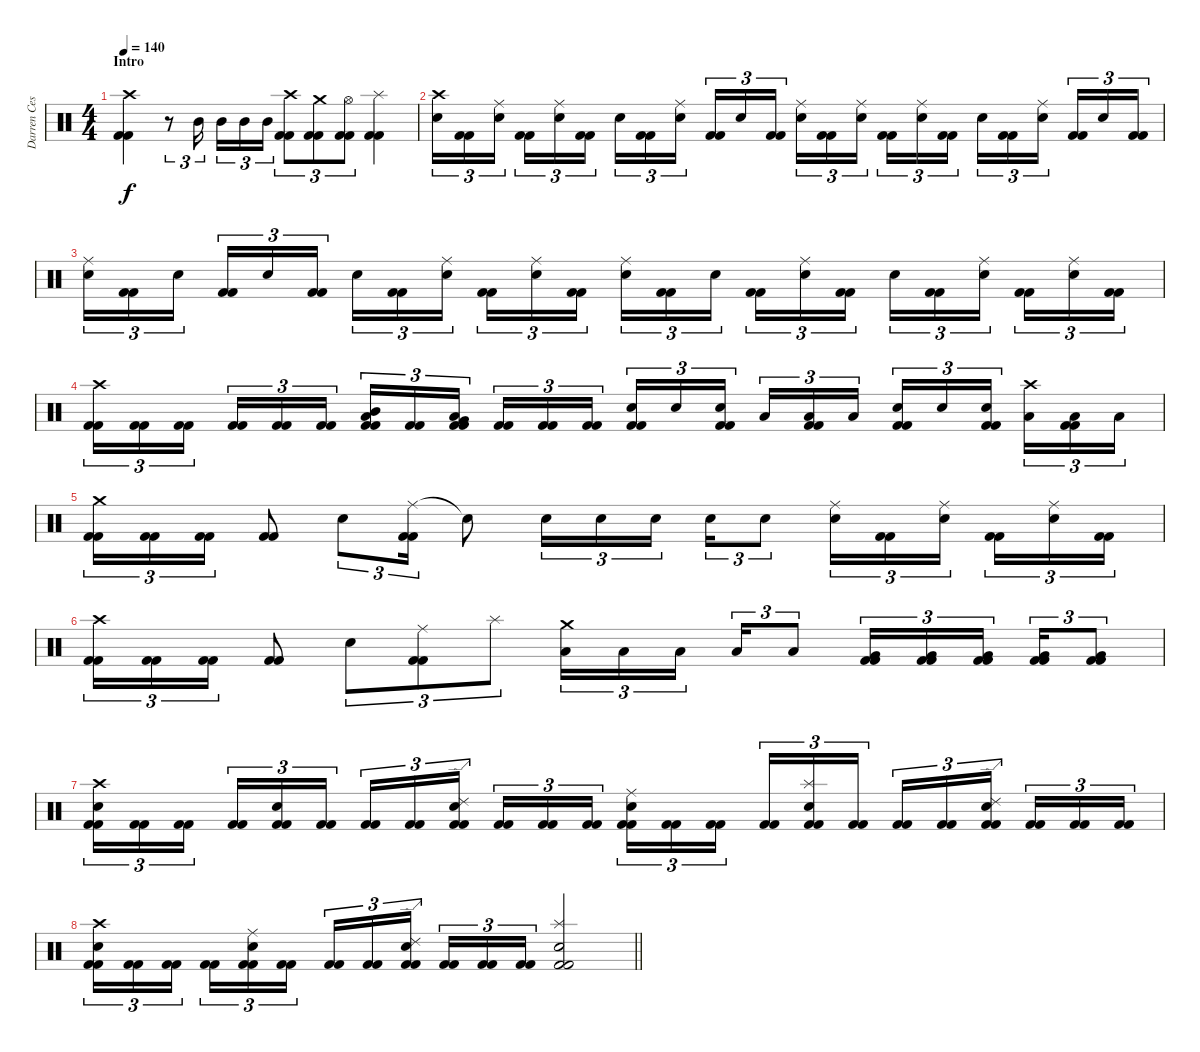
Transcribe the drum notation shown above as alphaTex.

\track ("Darren Cesca" "Darren Ces") {instrument percussion}
\staff {score}
\articulation defaults
\ts (4 4)
\section ("" "Intro")
\tempo 140
\clef neutral
\ks c
("Crash high (hit)" "Kick (hit) 2" "Kick (hit) 2").4{dy f} r.8{tu (3 2)} "Mid Tom (hit)".16{tu (3 2) beam splitsecondary} "Mid Tom (hit)".16{tu (3 2)} "Mid Tom (hit)".16{tu (3 2)} "Mid Tom (hit)".16{tu (3 2)} ("Crash high (hit)" "Kick (hit) 2" "Kick (hit) 2").8{tu (3 2)} ("Crash medium (hit)" "Kick (hit) 2" "Kick (hit) 2").8{tu (3 2)} ("Hi-Hat (open)" "Kick (hit) 2" "Kick (hit) 2").8{tu (3 2)} ("Splash (hit)" "Kick (hit) 2" "Kick (hit) 2").4 |
("Crash high (hit)" "Electric Snare (hit)").16{tu (3 2)} ("Kick (hit) 2" "Kick (hit) 2").16{tu (3 2)} ("Ride (middle)" "Electric Snare (hit)").16{tu (3 2) beam splitsecondary} ("Kick (hit) 2" "Kick (hit) 2").16{tu (3 2)} ("Ride (middle)" "Electric Snare (hit)").16{tu (3 2)} ("Kick (hit) 2" "Kick (hit) 2").16{tu (3 2)} "Electric Snare (hit)".16{tu (3 2)} ("Kick (hit) 2" "Kick (hit) 2").16{tu (3 2)} ("Ride (middle)" "Electric Snare (hit)").16{tu (3 2) beam splitsecondary} ("Kick (hit) 2" "Kick (hit) 2").16{tu (3 2)} "Electric Snare (hit)".16{tu (3 2)} ("Kick (hit) 2" "Kick (hit) 2").16{tu (3 2)} ("Ride (middle)" "Electric Snare (hit)").16{tu (3 2)} ("Kick (hit) 2" "Kick (hit) 2").16{tu (3 2)} ("Ride (middle)" "Electric Snare (hit)").16{tu (3 2) beam splitsecondary} ("Kick (hit) 2" "Kick (hit) 2").16{tu (3 2)} ("Ride (middle)" "Electric Snare (hit)").16{tu (3 2)} ("Kick (hit) 2" "Kick (hit) 2").16{tu (3 2)} "Electric Snare (hit)".16{tu (3 2)} ("Kick (hit) 2" "Kick (hit) 2").16{tu (3 2)} ("Ride (middle)" "Electric Snare (hit)").16{tu (3 2) beam splitsecondary} ("Kick (hit) 2" "Kick (hit) 2").16{tu (3 2)} "Electric Snare (hit)".16{tu (3 2)} ("Kick (hit) 2" "Kick (hit) 2").16{tu (3 2)} |
("Ride (middle)" "Electric Snare (hit)").16{tu (3 2)} ("Kick (hit) 2" "Kick (hit) 2").16{tu (3 2)} "Electric Snare (hit)".16{tu (3 2) beam splitsecondary} ("Kick (hit) 2" "Kick (hit) 2").16{tu (3 2)} "Electric Snare (hit)".16{tu (3 2)} ("Kick (hit) 2" "Kick (hit) 2").16{tu (3 2)} "Electric Snare (hit)".16{tu (3 2)} ("Kick (hit) 2" "Kick (hit) 2").16{tu (3 2)} ("Ride (middle)" "Electric Snare (hit)").16{tu (3 2) beam splitsecondary} ("Kick (hit) 2" "Kick (hit) 2").16{tu (3 2)} ("Ride (middle)" "Electric Snare (hit)").16{tu (3 2)} ("Kick (hit) 2" "Kick (hit) 2").16{tu (3 2)} ("Ride (middle)" "Electric Snare (hit)").16{tu (3 2)} ("Kick (hit) 2" "Kick (hit) 2").16{tu (3 2)} "Electric Snare (hit)".16{tu (3 2) beam splitsecondary} ("Kick (hit) 2" "Kick (hit) 2").16{tu (3 2)} ("Ride (middle)" "Electric Snare (hit)").16{tu (3 2)} ("Kick (hit) 2" "Kick (hit) 2").16{tu (3 2)} "Electric Snare (hit)".16{tu (3 2)} ("Kick (hit) 2" "Kick (hit) 2").16{tu (3 2)} ("Ride (middle)" "Electric Snare (hit)").16{tu (3 2) beam splitsecondary} ("Kick (hit) 2" "Kick (hit) 2").16{tu (3 2)} ("Ride (middle)" "Electric Snare (hit)").16{tu (3 2)} ("Kick (hit) 2" "Kick (hit) 2").16{tu (3 2)} |
("Crash high (hit)" "Kick (hit) 2" "Kick (hit) 2").16{tu (3 2)} ("Kick (hit) 2" "Kick (hit) 2").16{tu (3 2)} ("Kick (hit) 2" "Kick (hit) 2").16{tu (3 2) beam splitsecondary} ("Kick (hit) 2" "Kick (hit) 2").16{tu (3 2)} ("Kick (hit) 2" "Kick (hit) 2").16{tu (3 2)} ("Kick (hit) 2" "Kick (hit) 2").16{tu (3 2)} ("Mid Tom (hit)" "Low Tom (hit)" "Kick (hit) 2" "Kick (hit) 2").16{tu (3 2)} ("Kick (hit) 2" "Kick (hit) 2").16{tu (3 2)} ("Low Tom (hit)" "Very Low Tom (hit)" "Kick (hit) 2" "Kick (hit) 2").16{tu (3 2) beam splitsecondary} ("Kick (hit) 2" "Kick (hit) 2").16{tu (3 2)} ("Kick (hit) 2" "Kick (hit) 2").16{tu (3 2)} ("Kick (hit) 2" "Kick (hit) 2").16{tu (3 2)} ("Electric Snare (hit)" "Kick (hit) 2" "Kick (hit) 2").16{tu (3 2)} "Electric Snare (hit)".16{tu (3 2)} ("Electric Snare (hit)" "Kick (hit) 2" "Kick (hit) 2").16{tu (3 2) beam splitsecondary} "Low Tom (hit)".16{tu (3 2)} ("Low Tom (hit)" "Kick (hit) 2" "Kick (hit) 2").16{tu (3 2)} "Low Tom (hit)".16{tu (3 2)} ("Electric Snare (hit)" "Kick (hit) 2" "Kick (hit) 2").16{tu (3 2)} "Electric Snare (hit)".16{tu (3 2)} ("Electric Snare (hit)" "Kick (hit) 2" "Kick (hit) 2").16{tu (3 2) beam splitsecondary} ("Crash high (hit)" "Low Tom (hit)").16{tu (3 2)} ("Low Tom (hit)" "Kick (hit) 2" "Kick (hit) 2").16{tu (3 2)} "Low Tom (hit)".16{tu (3 2)} |
("Crash medium (hit)" "Kick (hit) 2" "Kick (hit) 2").16{tu (3 2)} ("Kick (hit) 2" "Kick (hit) 2").16{tu (3 2)} ("Kick (hit) 2" "Kick (hit) 2").16{tu (3 2)} ("Kick (hit) 2" "Kick (hit) 2").8 "Electric Snare (hit)".8{tu (3 2)} ("Ride (middle)" "Kick (hit) 2" "Kick (hit) 2").16{tu (3 2)} "Snare (hit)"{t}.8 "Electric Snare (hit)".16{tu (3 2)} "Electric Snare (hit)".16{tu (3 2)} "Electric Snare (hit)".16{tu (3 2) beam splitsecondary} "Electric Snare (hit)".16{tu (3 2)} "Electric Snare (hit)".8{tu (3 2)} ("Ride (middle)" "Electric Snare (hit)").16{tu (3 2)} ("Kick (hit) 2" "Kick (hit) 2").16{tu (3 2)} ("Ride (middle)" "Electric Snare (hit)").16{tu (3 2) beam splitsecondary} ("Kick (hit) 2" "Kick (hit) 2").16{tu (3 2)} ("Ride (middle)" "Electric Snare (hit)").16{tu (3 2)} ("Kick (hit) 2" "Kick (hit) 2").16{tu (3 2)} |
("Crash high (hit)" "Kick (hit) 2" "Kick (hit) 2").16{tu (3 2)} ("Kick (hit) 2" "Kick (hit) 2").16{tu (3 2)} ("Kick (hit) 2" "Kick (hit) 2").16{tu (3 2)} ("Kick (hit) 2" "Kick (hit) 2").8 "Electric Snare (hit)".8{tu (3 2)} ("Ride (middle)" "Kick (hit) 2" "Kick (hit) 2").8{tu (3 2)} "Splash (hit)".8{tu (3 2)} ("Crash medium (hit)" "Low Tom (hit)").16{tu (3 2)} "Low Tom (hit)".16{tu (3 2)} "Low Tom (hit)".16{tu (3 2) beam splitsecondary} "Low Tom (hit)".16{tu (3 2)} "Low Tom (hit)".8{tu (3 2)} ("Very Low Tom (hit)" "Kick (hit) 2" "Kick (hit) 2").16{tu (3 2)} ("Very Low Tom (hit)" "Kick (hit) 2" "Kick (hit) 2").16{tu (3 2)} ("Very Low Tom (hit)" "Kick (hit) 2" "Kick (hit) 2").16{tu (3 2) beam splitsecondary} ("Very Low Tom (hit)" "Kick (hit) 2" "Kick (hit) 2").16{tu (3 2)} ("Very Low Tom (hit)" "Kick (hit) 2" "Kick (hit) 2").8{tu (3 2)} |
("Crash high (hit)" "Electric Snare (hit)" "Kick (hit) 2" "Kick (hit) 2").16{tu (3 2)} ("Kick (hit) 2" "Kick (hit) 2").16{tu (3 2)} ("Kick (hit) 2" "Kick (hit) 2").16{tu (3 2) beam splitsecondary} ("Kick (hit) 2" "Kick (hit) 2").16{tu (3 2)} ("Electric Snare (hit)" "Kick (hit) 2" "Kick (hit) 2").16{tu (3 2)} ("Kick (hit) 2" "Kick (hit) 2").16{tu (3 2)} ("Kick (hit) 2" "Kick (hit) 2").16{tu (3 2)} ("Kick (hit) 2" "Kick (hit) 2").16{tu (3 2)} ("Ride (edge) 2" "Electric Snare (hit)" "Kick (hit) 2" "Kick (hit) 2").16{tu (3 2) beam splitsecondary} ("Kick (hit) 2" "Kick (hit) 2").16{tu (3 2)} ("Kick (hit) 2" "Kick (hit) 2").16{tu (3 2)} ("Kick (hit) 2" "Kick (hit) 2").16{tu (3 2)} ("Ride (middle)" "Electric Snare (hit)" "Kick (hit) 2" "Kick (hit) 2").16{tu (3 2)} ("Kick (hit) 2" "Kick (hit) 2").16{tu (3 2)} ("Kick (hit) 2" "Kick (hit) 2").16{tu (3 2) beam splitsecondary} ("Kick (hit) 2" "Kick (hit) 2").16{tu (3 2)} ("Splash (hit)" "Electric Snare (hit)" "Kick (hit) 2" "Kick (hit) 2").16{tu (3 2)} ("Kick (hit) 2" "Kick (hit) 2").16{tu (3 2)} ("Kick (hit) 2" "Kick (hit) 2").16{tu (3 2)} ("Kick (hit) 2" "Kick (hit) 2").16{tu (3 2)} ("Ride (edge) 2" "Electric Snare (hit)" "Kick (hit) 2" "Kick (hit) 2").16{tu (3 2) beam splitsecondary} ("Kick (hit) 2" "Kick (hit) 2").16{tu (3 2)} ("Kick (hit) 2" "Kick (hit) 2").16{tu (3 2)} ("Kick (hit) 2" "Kick (hit) 2").16{tu (3 2)} |
\barLineRight lightlight
("Crash high (hit)" "Electric Snare (hit)" "Kick (hit) 2" "Kick (hit) 2").16{tu (3 2)} ("Kick (hit) 2" "Kick (hit) 2").16{tu (3 2)} ("Kick (hit) 2" "Kick (hit) 2").16{tu (3 2) beam splitsecondary} ("Kick (hit) 2" "Kick (hit) 2").16{tu (3 2)} ("Ride (middle)" "Electric Snare (hit)" "Kick (hit) 2" "Kick (hit) 2").16{tu (3 2)} ("Kick (hit) 2" "Kick (hit) 2").16{tu (3 2)} ("Kick (hit) 2" "Kick (hit) 2").16{tu (3 2)} ("Kick (hit) 2" "Kick (hit) 2").16{tu (3 2)} ("Ride (edge) 2" "Electric Snare (hit)" "Kick (hit) 2" "Kick (hit) 2").16{tu (3 2) beam splitsecondary} ("Kick (hit) 2" "Kick (hit) 2").16{tu (3 2)} ("Kick (hit) 2" "Kick (hit) 2").16{tu (3 2)} ("Kick (hit) 2" "Kick (hit) 2").16{tu (3 2)} ("Splash (hit)" "Electric Snare (hit)" "Kick (hit) 2" "Kick (hit) 2").2
